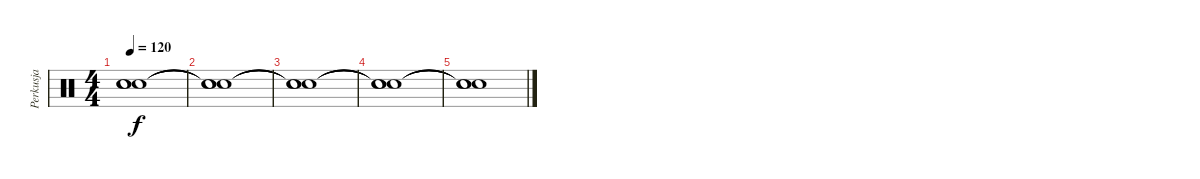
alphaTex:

\track ("Perkusja" "Perkusja") {instrument percussion}
\staff {score}
\articulation defaults
\ts (4 4)
\tempo 120
\clef neutral
\ks c
("Snare (hit)"{t} "Snare (hit)"{t} "Snare (hit)"{t}).1{dy f} |
("Snare (hit)"{t} "Snare (hit)"{t} "Snare (hit)"{t}).1 |
("Snare (hit)"{t} "Snare (hit)"{t} "Snare (hit)"{t}).1 |
("Snare (hit)"{t} "Snare (hit)"{t} "Snare (hit)"{t}).1 |
("Snare (hit)"{t} "Snare (hit)"{t} "Snare (hit)"{t}).1
